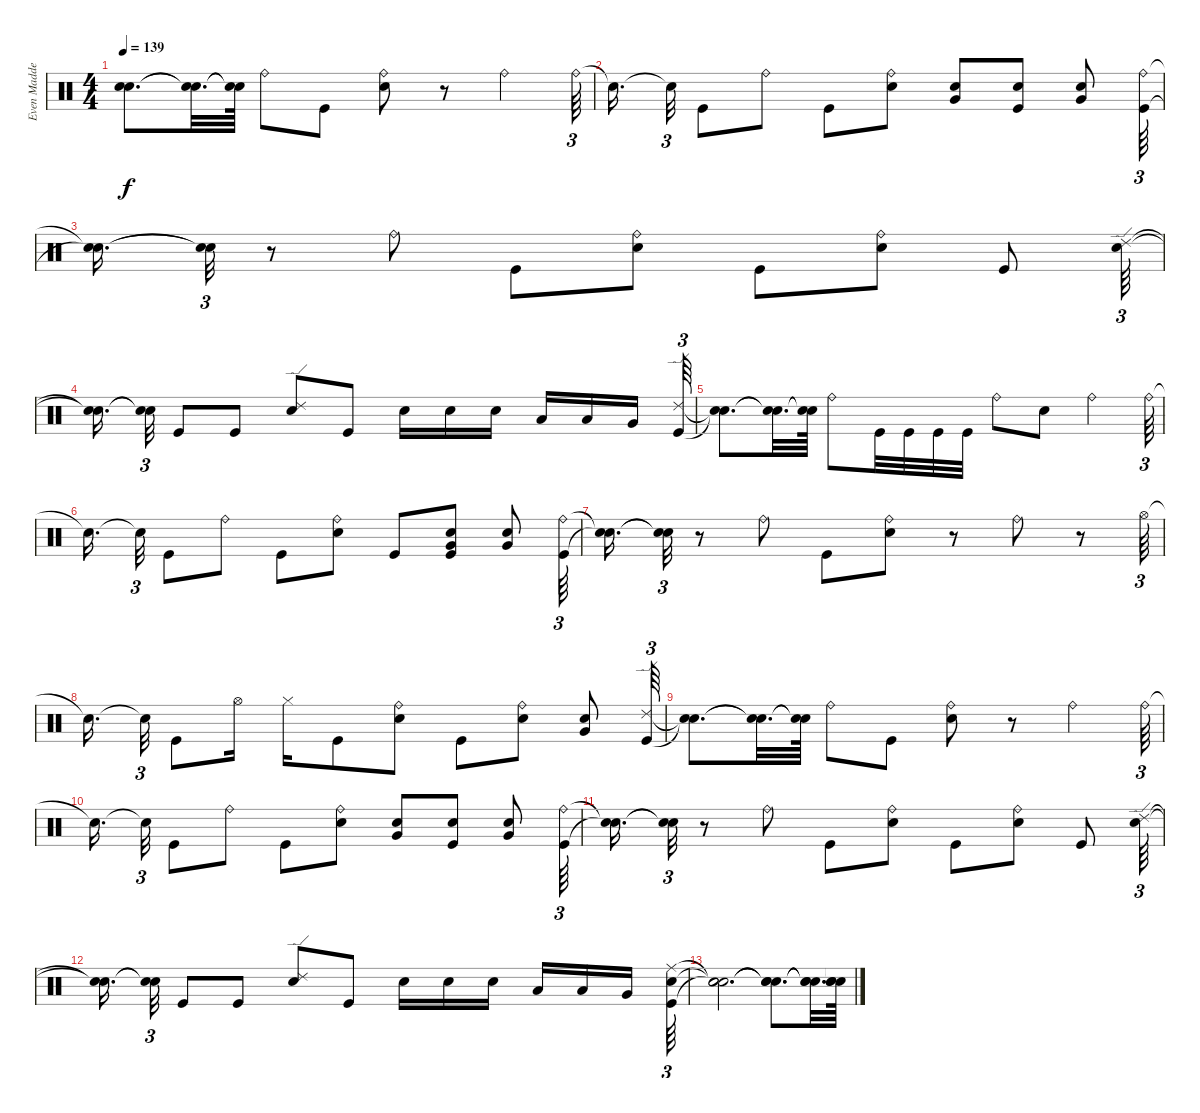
\track ("Even Madden - Drums" "Even Madde") {instrument percussion}
\staff {score}
\articulation defaults
\ts (4 4)
\tempo 139
\clef neutral
\ks c
("Snare (hit)"{t} "Snare (hit)"{t}).8{d dy f} ("Snare (hit)"{t} "Snare (hit)"{t}).32{d} ("Snare (hit)"{t} "Snare (hit)"{t}).64 "Ride (bell)".8 "Kick (hit)".8 ("Ride (bell)" "Snare (hit) 2").8 r.8 "Ride (bell)".4 "Ride (bell)".64{tu (3 2)} |
"Snare (hit)"{t}.16{d beam splitsecondary} "Snare (hit)"{t}.32{tu (3 2)} "Kick (hit)".8 "Ride (bell)".8 "Kick (hit)".8 ("Ride (bell)" "Snare (hit) 2").8 ("Very Low Tom (hit)" "Snare (hit) 2").8 ("Snare (hit) 2" "Kick (hit)").8 ("Snare (hit) 2" "Very Low Tom (hit)").8 ("Ride (bell)" "Kick (hit)").64{tu (3 2)} |
("Snare (hit)"{t} "Snare (hit)"{t}).16{d} ("Snare (hit)"{t} "Snare (hit)"{t}).32{tu (3 2)} r.8 "Ride (bell)".8 "Kick (hit)".8 ("Ride (bell)" "Snare (hit) 2").8 "Kick (hit)".8 ("Ride (bell)" "Snare (hit) 2").8 "Kick (hit)".8 ("Snare (hit) 2" "Ride (edge) 2").64{tu (3 2)} |
("Snare (hit)"{t} "Snare (hit)"{t}).16{d beam splitsecondary} ("Snare (hit)"{t} "Snare (hit)"{t}).32{tu (3 2)} "Kick (hit)".8 "Kick (hit)".8 ("Snare (hit) 2" "Ride (edge) 2").8 "Kick (hit)".8 "Snare (hit) 2".16 "Snare (hit) 2".16 "Snare (hit) 2".16 "Low Tom (hit)".16 "Low Tom (hit)".16 "Very Low Tom (hit)".16{beam splitsecondary} ("Ride (edge) 2" "Kick (hit)").64{tu (3 2)} |
("Snare (hit)"{t} "Snare (hit)"{t}).8{d} ("Snare (hit)"{t} "Snare (hit)"{t}).32{d} ("Snare (hit)"{t} "Snare (hit)"{t}).64 "Ride (bell)".8 "Kick (hit)".32 "Kick (hit)".32 "Kick (hit)".32 "Kick (hit)".32 "Ride (bell)".8 "Snare (hit) 2".8 "Ride (bell)".4 "Ride (bell)".64{tu (3 2)} |
"Snare (hit)"{t}.16{d beam splitsecondary} "Snare (hit)"{t}.32{tu (3 2)} "Kick (hit)".8 "Ride (bell)".8 "Kick (hit)".8 ("Ride (bell)" "Snare (hit) 2").8 "Kick (hit)".8 ("Snare (hit) 2" "Kick (hit)" "Very Low Tom (hit)").8 ("Snare (hit) 2" "Very Low Tom (hit)").8 ("Ride (bell)" "Kick (hit)").64{tu (3 2)} |
("Snare (hit)"{t} "Snare (hit)"{t}).16{d} ("Snare (hit)"{t} "Snare (hit)"{t}).32{tu (3 2)} r.8 "Ride (bell)".8 "Kick (hit)".8 ("Ride (bell)" "Snare (hit) 2").8 r.8 "Ride (bell)".8 r.8 "Hi-Hat (open)".64{tu (3 2)} |
"Snare (hit)"{t}.16{d beam splitsecondary} "Snare (hit)"{t}.32{tu (3 2)} "Kick (hit)".8 "Hi-Hat (open)".16 "Hi-Hat (closed)".16 "Kick (hit)".8 ("Snare (hit) 2" "Ride (bell)").8 "Kick (hit)".8 ("Snare (hit) 2" "Ride (bell)").8 ("Snare (hit) 2" "Very Low Tom (hit)").8 ("Ride (edge) 2" "Kick (hit)").64{tu (3 2)} |
("Snare (hit)"{t} "Snare (hit)"{t}).8{d} ("Snare (hit)"{t} "Snare (hit)"{t}).32{d} ("Snare (hit)"{t} "Snare (hit)"{t}).64 "Ride (bell)".8 "Kick (hit)".8 ("Ride (bell)" "Snare (hit) 2").8 r.8 "Ride (bell)".4 "Ride (bell)".64{tu (3 2)} |
"Snare (hit)"{t}.16{d beam splitsecondary} "Snare (hit)"{t}.32{tu (3 2)} "Kick (hit)".8 "Ride (bell)".8 "Kick (hit)".8 ("Ride (bell)" "Snare (hit) 2").8 ("Very Low Tom (hit)" "Snare (hit) 2").8 ("Snare (hit) 2" "Kick (hit)").8 ("Snare (hit) 2" "Very Low Tom (hit)").8 ("Ride (bell)" "Kick (hit)").64{tu (3 2)} |
("Snare (hit)"{t} "Snare (hit)"{t}).16{d} ("Snare (hit)"{t} "Snare (hit)"{t}).32{tu (3 2)} r.8 "Ride (bell)".8 "Kick (hit)".8 ("Ride (bell)" "Snare (hit) 2").8 "Kick (hit)".8 ("Ride (bell)" "Snare (hit) 2").8 "Kick (hit)".8 ("Snare (hit) 2" "Ride (edge) 2").64{tu (3 2)} |
("Snare (hit)"{t} "Snare (hit)"{t}).16{d beam splitsecondary} ("Snare (hit)"{t} "Snare (hit)"{t}).32{tu (3 2)} "Kick (hit)".8 "Kick (hit)".8 ("Snare (hit) 2" "Ride (edge) 2").8 "Kick (hit)".8 "Snare (hit) 2".16 "Snare (hit) 2".16 "Snare (hit) 2".16 "Low Tom (hit)".16 "Low Tom (hit)".16 "Very Low Tom (hit)".16{beam splitsecondary} ("Kick (hit)" "Snare (hit) 2" "Ride (middle)").64{tu (3 2)} |
("Snare (hit)"{t} "Snare (hit)"{t} "Snare (hit)"{t}).2{d} ("Snare (hit)"{t} "Snare (hit)"{t} "Snare (hit)"{t}).8{d} ("Snare (hit)"{t} "Snare (hit)"{t} "Snare (hit)"{t}).32{d} ("Snare (hit)"{t} "Snare (hit)"{t} "Snare (hit)"{t}).64
